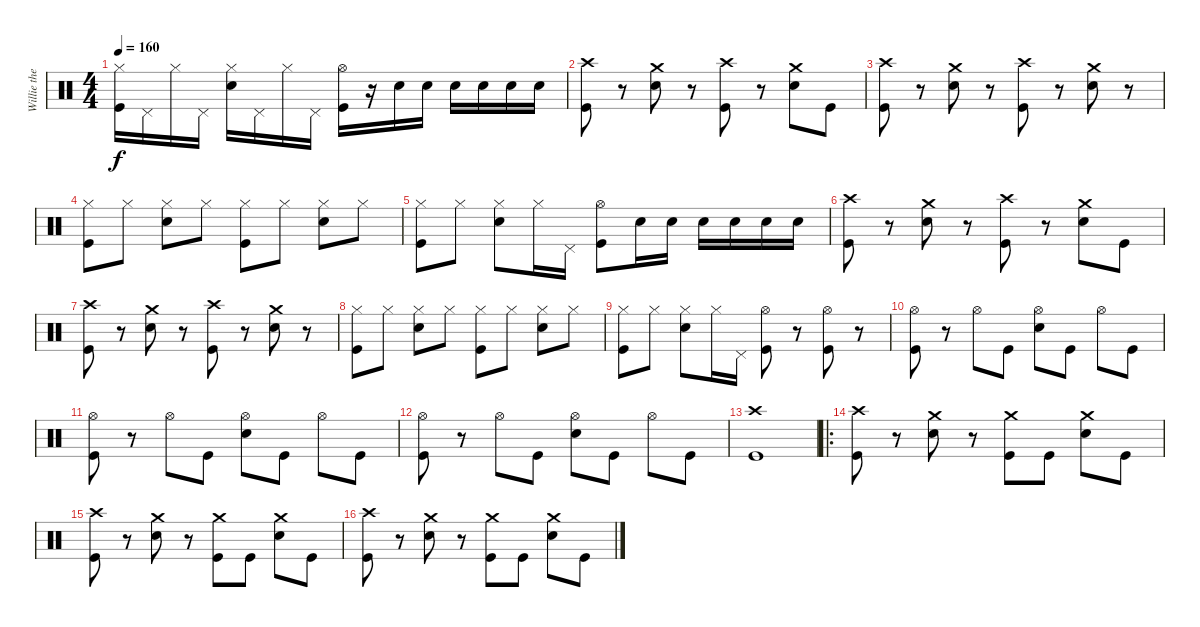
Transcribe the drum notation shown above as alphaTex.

\track ("Willie the new guy" "Willie the") {instrument percussion}
\staff {score}
\articulation defaults
\ts (4 4)
\tempo 160
\clef neutral
\ks c
("Hi-Hat (closed)" "Kick (hit)").16{dy f} "Pedal Hi-Hat (hit)".16 "Hi-Hat (closed)".16 "Pedal Hi-Hat (hit)".16 ("Hi-Hat (closed)" "Snare (hit) 2").16 "Pedal Hi-Hat (hit)".16 "Hi-Hat (closed)".16 "Pedal Hi-Hat (hit)".16 ("Hi-Hat (open)" "Kick (hit)").16 r.16 "Snare (hit) 2".16 "Snare (hit) 2".16 "Snare (hit) 2".16 "Snare (hit) 2".16 "Snare (hit) 2".16 "Snare (hit) 2".16 |
("Crash high (hit)" "Kick (hit)").8 r.8 ("Crash medium (hit)" "Snare (hit) 2").8 r.8 ("Crash high (hit)" "Kick (hit)").8 r.8 ("Crash medium (hit)" "Snare (hit) 2").8 "Kick (hit)".8 |
("Crash high (hit)" "Kick (hit)").8 r.8 ("Crash medium (hit)" "Snare (hit) 2").8 r.8 ("Crash high (hit)" "Kick (hit)").8 r.8 ("Crash medium (hit)" "Snare (hit) 2").8 r.8 |
("Hi-Hat (closed)" "Kick (hit)").8 "Hi-Hat (closed)".8 ("Hi-Hat (closed)" "Snare (hit) 2").8 "Hi-Hat (closed)".8 ("Hi-Hat (closed)" "Kick (hit)").8 "Hi-Hat (closed)".8 ("Hi-Hat (closed)" "Snare (hit) 2").8 "Hi-Hat (closed)".8 |
("Hi-Hat (closed)" "Kick (hit)").8 "Hi-Hat (closed)".8 ("Hi-Hat (closed)" "Snare (hit) 2").8 "Hi-Hat (closed)".16 "Pedal Hi-Hat (hit)".16 ("Hi-Hat (open)" "Kick (hit)").8 "Snare (hit) 2".16 "Snare (hit) 2".16 "Snare (hit) 2".16 "Snare (hit) 2".16 "Snare (hit) 2".16 "Snare (hit) 2".16 |
("Crash high (hit)" "Kick (hit)").8 r.8 ("Crash medium (hit)" "Snare (hit) 2").8 r.8 ("Crash high (hit)" "Kick (hit)").8 r.8 ("Crash medium (hit)" "Snare (hit) 2").8 "Kick (hit)".8 |
("Crash high (hit)" "Kick (hit)").8 r.8 ("Crash medium (hit)" "Snare (hit) 2").8 r.8 ("Crash high (hit)" "Kick (hit)").8 r.8 ("Crash medium (hit)" "Snare (hit) 2").8 r.8 |
("Hi-Hat (closed)" "Kick (hit)").8 "Hi-Hat (closed)".8 ("Hi-Hat (closed)" "Snare (hit) 2").8 "Hi-Hat (closed)".8 ("Hi-Hat (closed)" "Kick (hit)").8 "Hi-Hat (closed)".8 ("Hi-Hat (closed)" "Snare (hit) 2").8 "Hi-Hat (closed)".8 |
("Hi-Hat (closed)" "Kick (hit)").8 "Hi-Hat (closed)".8 ("Hi-Hat (closed)" "Snare (hit) 2").8 "Hi-Hat (closed)".16 "Pedal Hi-Hat (hit)".16 ("Hi-Hat (open)" "Kick (hit)").8 r.8 ("Hi-Hat (open)" "Kick (hit)").8 r.8 |
("Hi-Hat (open)" "Kick (hit)").8 r.8 "Hi-Hat (open)".8 "Kick (hit)".8 ("Hi-Hat (open)" "Snare (hit) 2").8 "Kick (hit)".8 "Hi-Hat (open)".8 "Kick (hit)".8 |
("Hi-Hat (open)" "Kick (hit)").8 r.8 "Hi-Hat (open)".8 "Kick (hit)".8 ("Hi-Hat (open)" "Snare (hit) 2").8 "Kick (hit)".8 "Hi-Hat (open)".8 "Kick (hit)".8 |
("Hi-Hat (open)" "Kick (hit)").8 r.8 "Hi-Hat (open)".8 "Kick (hit)".8 ("Hi-Hat (open)" "Snare (hit) 2").8 "Kick (hit)".8 "Hi-Hat (open)".8 "Kick (hit)".8 |
("Crash high (hit)" "Kick (hit)").1 |
\ro
("Crash high (hit)" "Kick (hit)").8 r.8 ("Crash medium (hit)" "Snare (hit) 2").8 r.8 ("Crash medium (hit)" "Kick (hit)").8 "Kick (hit)".8 ("Crash medium (hit)" "Snare (hit) 2").8 "Kick (hit)".8 |
("Crash high (hit)" "Kick (hit)").8 r.8 ("Crash medium (hit)" "Snare (hit) 2").8 r.8 ("Crash medium (hit)" "Kick (hit)").8 "Kick (hit)".8 ("Crash medium (hit)" "Snare (hit) 2").8 "Kick (hit)".8 |
("Crash high (hit)" "Kick (hit)").8 r.8 ("Crash medium (hit)" "Snare (hit) 2").8 r.8 ("Crash medium (hit)" "Kick (hit)").8 "Kick (hit)".8 ("Crash medium (hit)" "Snare (hit) 2").8 "Kick (hit)".8
